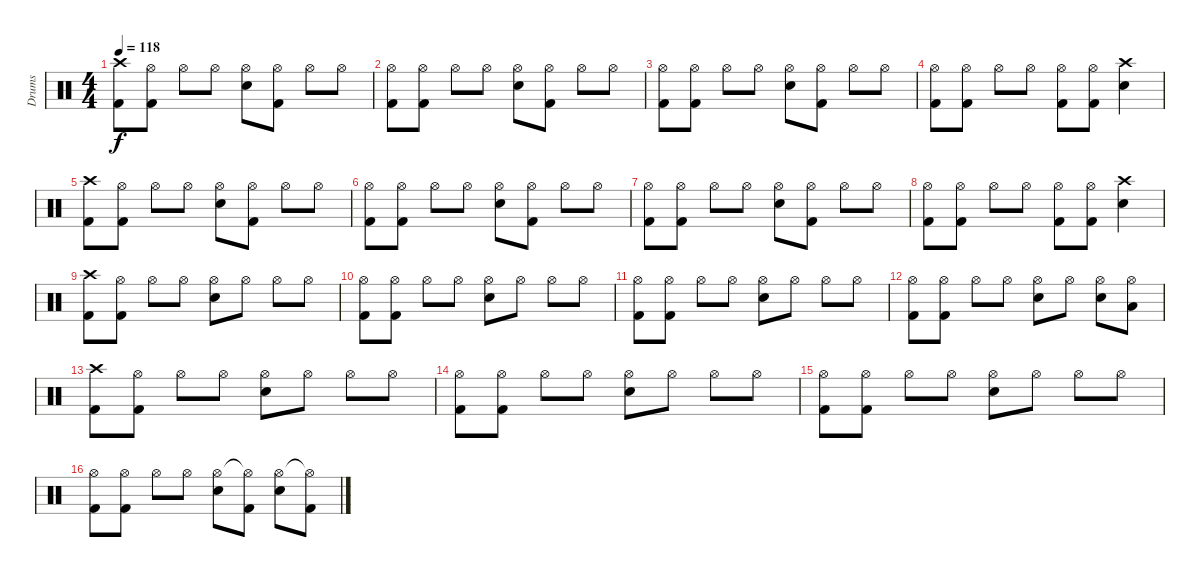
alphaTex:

\track ("Drums" "Drums") {instrument percussion}
\staff {score}
\articulation defaults
\ts (4 4)
\tempo 118
\clef neutral
\ks c
("Crash high (hit)" "Kick (hit) 2").8{dy f} ("Hi-Hat (open)" "Kick (hit) 2").8 "Hi-Hat (open)".8 "Hi-Hat (open)".8 ("Hi-Hat (open)" "Snare (hit) 2").8 ("Hi-Hat (open)" "Kick (hit) 2").8 "Hi-Hat (open)".8 "Hi-Hat (open)".8 |
("Hi-Hat (open)" "Kick (hit) 2").8 ("Hi-Hat (open)" "Kick (hit) 2").8 "Hi-Hat (open)".8 "Hi-Hat (open)".8 ("Hi-Hat (open)" "Snare (hit) 2").8 ("Hi-Hat (open)" "Kick (hit) 2").8 "Hi-Hat (open)".8 "Hi-Hat (open)".8 |
("Hi-Hat (open)" "Kick (hit) 2").8 ("Hi-Hat (open)" "Kick (hit) 2").8 "Hi-Hat (open)".8 "Hi-Hat (open)".8 ("Hi-Hat (open)" "Snare (hit) 2").8 ("Hi-Hat (open)" "Kick (hit) 2").8 "Hi-Hat (open)".8 "Hi-Hat (open)".8 |
("Hi-Hat (open)" "Kick (hit) 2").8 ("Hi-Hat (open)" "Kick (hit) 2").8 "Hi-Hat (open)".8 "Hi-Hat (open)".8 ("Hi-Hat (open)" "Kick (hit) 2").8 ("Hi-Hat (open)" "Kick (hit) 2").8 ("Crash high (hit)" "Snare (hit) 2").4 |
("Crash high (hit)" "Kick (hit) 2").8 ("Hi-Hat (open)" "Kick (hit) 2").8 "Hi-Hat (open)".8 "Hi-Hat (open)".8 ("Hi-Hat (open)" "Snare (hit) 2").8 ("Hi-Hat (open)" "Kick (hit) 2").8 "Hi-Hat (open)".8 "Hi-Hat (open)".8 |
("Hi-Hat (open)" "Kick (hit) 2").8 ("Hi-Hat (open)" "Kick (hit) 2").8 "Hi-Hat (open)".8 "Hi-Hat (open)".8 ("Hi-Hat (open)" "Snare (hit) 2").8 ("Hi-Hat (open)" "Kick (hit) 2").8 "Hi-Hat (open)".8 "Hi-Hat (open)".8 |
("Hi-Hat (open)" "Kick (hit) 2").8 ("Hi-Hat (open)" "Kick (hit) 2").8 "Hi-Hat (open)".8 "Hi-Hat (open)".8 ("Hi-Hat (open)" "Snare (hit) 2").8 ("Hi-Hat (open)" "Kick (hit) 2").8 "Hi-Hat (open)".8 "Hi-Hat (open)".8 |
("Hi-Hat (open)" "Kick (hit) 2").8 ("Hi-Hat (open)" "Kick (hit) 2").8 "Hi-Hat (open)".8 "Hi-Hat (open)".8 ("Hi-Hat (open)" "Kick (hit) 2").8 ("Hi-Hat (open)" "Kick (hit) 2").8 ("Crash high (hit)" "Snare (hit) 2").4 |
("Crash high (hit)" "Kick (hit) 2").8 ("Hi-Hat (open)" "Kick (hit) 2").8 "Hi-Hat (open)".8 "Hi-Hat (open)".8 ("Hi-Hat (open)" "Snare (hit) 2").8 "Hi-Hat (open)".8 "Hi-Hat (open)".8 "Hi-Hat (open)".8 |
("Hi-Hat (open)" "Kick (hit) 2").8 ("Hi-Hat (open)" "Kick (hit) 2").8 "Hi-Hat (open)".8 "Hi-Hat (open)".8 ("Hi-Hat (open)" "Snare (hit) 2").8 "Hi-Hat (open)".8 "Hi-Hat (open)".8 "Hi-Hat (open)".8 |
("Hi-Hat (open)" "Kick (hit) 2").8 ("Hi-Hat (open)" "Kick (hit) 2").8 "Hi-Hat (open)".8 "Hi-Hat (open)".8 ("Hi-Hat (open)" "Snare (hit) 2").8 "Hi-Hat (open)".8 "Hi-Hat (open)".8 "Hi-Hat (open)".8 |
("Hi-Hat (open)" "Kick (hit) 2").8 ("Hi-Hat (open)" "Kick (hit) 2").8 "Hi-Hat (open)".8 "Hi-Hat (open)".8 ("Hi-Hat (open)" "Snare (hit) 2").8 "Hi-Hat (open)".8 ("Hi-Hat (open)" "Snare (hit) 2").8 ("Hi-Hat (open)" "Low Tom (hit)").8 |
("Crash high (hit)" "Kick (hit) 2").8 ("Hi-Hat (open)" "Kick (hit) 2").8 "Hi-Hat (open)".8 "Hi-Hat (open)".8 ("Hi-Hat (open)" "Snare (hit) 2").8 "Hi-Hat (open)".8 "Hi-Hat (open)".8 "Hi-Hat (open)".8 |
("Hi-Hat (open)" "Kick (hit) 2").8 ("Hi-Hat (open)" "Kick (hit) 2").8 "Hi-Hat (open)".8 "Hi-Hat (open)".8 ("Hi-Hat (open)" "Snare (hit) 2").8 "Hi-Hat (open)".8 "Hi-Hat (open)".8 "Hi-Hat (open)".8 |
("Hi-Hat (open)" "Kick (hit) 2").8 ("Hi-Hat (open)" "Kick (hit) 2").8 "Hi-Hat (open)".8 "Hi-Hat (open)".8 ("Hi-Hat (open)" "Snare (hit) 2").8 "Hi-Hat (open)".8 "Hi-Hat (open)".8 "Hi-Hat (open)".8 |
("Hi-Hat (open)" "Kick (hit) 2").8 ("Hi-Hat (open)" "Kick (hit) 2").8 "Hi-Hat (open)".8 "Hi-Hat (open)".8 ("Hi-Hat (open)" "Snare (hit) 2").8 ("Hi-Hat (open)"{t} "Kick (hit) 2").8 ("Hi-Hat (open)" "Snare (hit) 2").8 ("Hi-Hat (open)"{t} "Kick (hit) 2").8
